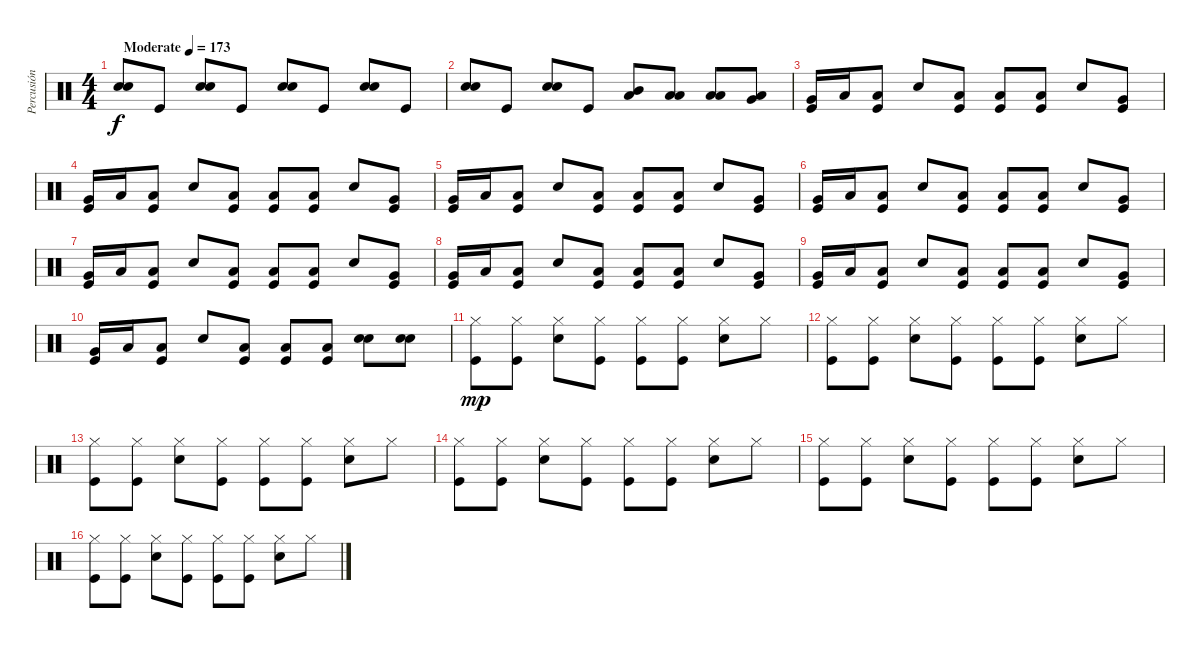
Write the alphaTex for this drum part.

\track ("Percusión" "Percusión") {instrument percussion}
\staff {score}
\articulation defaults
\ts (4 4)
\tempo (173 "Moderate")
\clef neutral
\ks c
("Snare (hit) 2" "Snare (hit) 2").8{dy f} "Kick (hit)".8 ("Snare (hit) 2" "Snare (hit) 2").8 "Kick (hit)".8 ("Snare (hit) 2" "Snare (hit) 2").8 "Kick (hit)".8 ("Snare (hit) 2" "Snare (hit) 2").8 "Kick (hit)".8 |
("Snare (hit) 2" "Snare (hit) 2").8 "Kick (hit)".8 ("Snare (hit) 2" "Snare (hit) 2").8 "Kick (hit)".8 ("Mid Tom (hit)" "Low Floor Tom (hit)").8 ("Low Tom (hit)" "Low Floor Tom (hit)").8 ("Low Tom (hit)" "Low Floor Tom (hit)").8 ("Very Low Tom (hit)" "Low Floor Tom (hit)").8 |
("Very Low Tom (hit)" "Kick (hit)").16 "Low Floor Tom (hit)".16 ("Low Floor Tom (hit)" "Kick (hit)").8 "Snare (hit) 2".8 ("Low Floor Tom (hit)" "Kick (hit)").8 ("Low Floor Tom (hit)" "Kick (hit)").8 ("Low Floor Tom (hit)" "Kick (hit)").8 "Snare (hit) 2".8 ("Very Low Tom (hit)" "Kick (hit)").8 |
("Very Low Tom (hit)" "Kick (hit)").16 "Low Floor Tom (hit)".16 ("Low Floor Tom (hit)" "Kick (hit)").8 "Snare (hit) 2".8 ("Low Floor Tom (hit)" "Kick (hit)").8 ("Low Floor Tom (hit)" "Kick (hit)").8 ("Low Floor Tom (hit)" "Kick (hit)").8 "Snare (hit) 2".8 ("Very Low Tom (hit)" "Kick (hit)").8 |
("Very Low Tom (hit)" "Kick (hit)").16 "Low Floor Tom (hit)".16 ("Low Floor Tom (hit)" "Kick (hit)").8 "Snare (hit) 2".8 ("Low Floor Tom (hit)" "Kick (hit)").8 ("Low Floor Tom (hit)" "Kick (hit)").8 ("Low Floor Tom (hit)" "Kick (hit)").8 "Snare (hit) 2".8 ("Very Low Tom (hit)" "Kick (hit)").8 |
("Very Low Tom (hit)" "Kick (hit)").16 "Low Floor Tom (hit)".16 ("Low Floor Tom (hit)" "Kick (hit)").8 "Snare (hit) 2".8 ("Low Floor Tom (hit)" "Kick (hit)").8 ("Low Floor Tom (hit)" "Kick (hit)").8 ("Low Floor Tom (hit)" "Kick (hit)").8 "Snare (hit) 2".8 ("Very Low Tom (hit)" "Kick (hit)").8 |
("Very Low Tom (hit)" "Kick (hit)").16 "Low Floor Tom (hit)".16 ("Low Floor Tom (hit)" "Kick (hit)").8 "Snare (hit) 2".8 ("Low Floor Tom (hit)" "Kick (hit)").8 ("Low Floor Tom (hit)" "Kick (hit)").8 ("Low Floor Tom (hit)" "Kick (hit)").8 "Snare (hit) 2".8 ("Very Low Tom (hit)" "Kick (hit)").8 |
("Very Low Tom (hit)" "Kick (hit)").16 "Low Floor Tom (hit)".16 ("Low Floor Tom (hit)" "Kick (hit)").8 "Snare (hit) 2".8 ("Low Floor Tom (hit)" "Kick (hit)").8 ("Low Floor Tom (hit)" "Kick (hit)").8 ("Low Floor Tom (hit)" "Kick (hit)").8 "Snare (hit) 2".8 ("Very Low Tom (hit)" "Kick (hit)").8 |
("Very Low Tom (hit)" "Kick (hit)").16 "Low Floor Tom (hit)".16 ("Low Floor Tom (hit)" "Kick (hit)").8 "Snare (hit) 2".8 ("Low Floor Tom (hit)" "Kick (hit)").8 ("Low Floor Tom (hit)" "Kick (hit)").8 ("Low Floor Tom (hit)" "Kick (hit)").8 "Snare (hit) 2".8 ("Very Low Tom (hit)" "Kick (hit)").8 |
("Very Low Tom (hit)" "Kick (hit)").16 "Low Floor Tom (hit)".16 ("Low Floor Tom (hit)" "Kick (hit)").8 "Snare (hit) 2".8 ("Low Floor Tom (hit)" "Kick (hit)").8 ("Low Floor Tom (hit)" "Kick (hit)").8 ("Low Floor Tom (hit)" "Kick (hit)").8 ("Snare (hit) 2" "Snare (hit) 2").8 ("Snare (hit) 2" "Snare (hit) 2").8 |
("Kick (hit)" "Hi-Hat (closed)").8{dy mp} ("Kick (hit)" "Hi-Hat (closed)").8 ("Snare (hit) 2" "Hi-Hat (closed)").8 ("Kick (hit)" "Hi-Hat (closed)").8 ("Kick (hit)" "Hi-Hat (closed)").8 ("Kick (hit)" "Hi-Hat (closed)").8 ("Snare (hit) 2" "Hi-Hat (closed)").8 "Hi-Hat (closed)".8 |
("Kick (hit)" "Hi-Hat (closed)").8 ("Kick (hit)" "Hi-Hat (closed)").8 ("Snare (hit) 2" "Hi-Hat (closed)").8 ("Kick (hit)" "Hi-Hat (closed)").8 ("Kick (hit)" "Hi-Hat (closed)").8 ("Kick (hit)" "Hi-Hat (closed)").8 ("Snare (hit) 2" "Hi-Hat (closed)").8 "Hi-Hat (closed)".8 |
("Kick (hit)" "Hi-Hat (closed)").8 ("Kick (hit)" "Hi-Hat (closed)").8 ("Snare (hit) 2" "Hi-Hat (closed)").8 ("Kick (hit)" "Hi-Hat (closed)").8 ("Kick (hit)" "Hi-Hat (closed)").8 ("Kick (hit)" "Hi-Hat (closed)").8 ("Snare (hit) 2" "Hi-Hat (closed)").8 "Hi-Hat (closed)".8 |
("Kick (hit)" "Hi-Hat (closed)").8 ("Kick (hit)" "Hi-Hat (closed)").8 ("Snare (hit) 2" "Hi-Hat (closed)").8 ("Kick (hit)" "Hi-Hat (closed)").8 ("Kick (hit)" "Hi-Hat (closed)").8 ("Kick (hit)" "Hi-Hat (closed)").8 ("Snare (hit) 2" "Hi-Hat (closed)").8 "Hi-Hat (closed)".8 |
("Kick (hit)" "Hi-Hat (closed)").8 ("Kick (hit)" "Hi-Hat (closed)").8 ("Snare (hit) 2" "Hi-Hat (closed)").8 ("Kick (hit)" "Hi-Hat (closed)").8 ("Kick (hit)" "Hi-Hat (closed)").8 ("Kick (hit)" "Hi-Hat (closed)").8 ("Snare (hit) 2" "Hi-Hat (closed)").8 "Hi-Hat (closed)".8 |
("Kick (hit)" "Hi-Hat (closed)").8 ("Kick (hit)" "Hi-Hat (closed)").8 ("Snare (hit) 2" "Hi-Hat (closed)").8 ("Kick (hit)" "Hi-Hat (closed)").8 ("Kick (hit)" "Hi-Hat (closed)").8 ("Kick (hit)" "Hi-Hat (closed)").8 ("Snare (hit) 2" "Hi-Hat (closed)").8 "Hi-Hat (closed)".8
